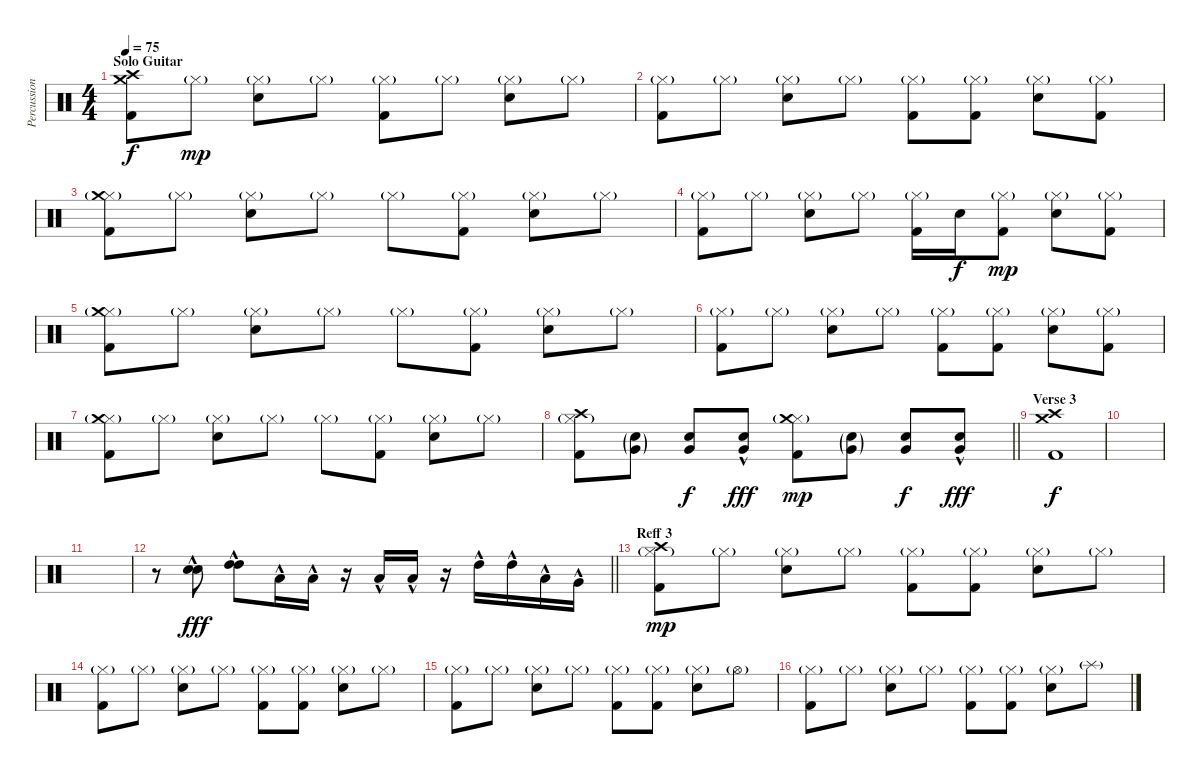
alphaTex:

\track ("Percussion" "Percussion") {instrument percussion}
\staff {score}
\articulation defaults
\ts (4 4)
\section ("" "Solo Guitar")
\tempo 75
\clef neutral
\ks c
("Crash medium (hit)" "Crash high (hit)" "Kick (hit) 2").8{dy f} "Hi-Hat (closed)"{g}.8{dy mp} ("Hi-Hat (closed)"{g} "Electric Snare (hit)").8 "Hi-Hat (closed)"{g}.8 ("Hi-Hat (closed)"{g} "Kick (hit) 2").8 "Hi-Hat (closed)"{g}.8 ("Hi-Hat (closed)"{g} "Electric Snare (hit)").8 "Hi-Hat (closed)"{g}.8 |
("Hi-Hat (closed)"{g} "Kick (hit) 2").8 "Hi-Hat (closed)"{g}.8 ("Hi-Hat (closed)"{g} "Electric Snare (hit)").8 "Hi-Hat (closed)"{g}.8 ("Hi-Hat (closed)"{g} "Kick (hit) 2").8 ("Hi-Hat (closed)"{g} "Kick (hit) 2").8 ("Hi-Hat (closed)"{g} "Electric Snare (hit)").8 ("Hi-Hat (closed)"{g} "Kick (hit) 2").8 |
("Hi-Hat (closed)"{g} "Crash medium (hit)" "Kick (hit) 2").8 "Hi-Hat (closed)"{g}.8 ("Hi-Hat (closed)"{g} "Electric Snare (hit)").8 "Hi-Hat (closed)"{g}.8 "Hi-Hat (closed)"{g}.8 ("Hi-Hat (closed)"{g} "Kick (hit) 2").8 ("Hi-Hat (closed)"{g} "Electric Snare (hit)").8 "Hi-Hat (closed)"{g}.8 |
("Hi-Hat (closed)"{g} "Kick (hit) 2").8 "Hi-Hat (closed)"{g}.8 ("Hi-Hat (closed)"{g} "Electric Snare (hit)").8 "Hi-Hat (closed)"{g}.8 ("Hi-Hat (closed)"{g} "Kick (hit) 2").16 "Electric Snare (hit)".16{dy f} ("Hi-Hat (closed)"{g} "Kick (hit) 2").8{dy mp} ("Hi-Hat (closed)"{g} "Electric Snare (hit)").8 ("Hi-Hat (closed)"{g} "Kick (hit) 2").8 |
("Hi-Hat (closed)"{g} "Crash medium (hit)" "Kick (hit) 2").8 "Hi-Hat (closed)"{g}.8 ("Hi-Hat (closed)"{g} "Electric Snare (hit)").8 "Hi-Hat (closed)"{g}.8 "Hi-Hat (closed)"{g}.8 ("Hi-Hat (closed)"{g} "Kick (hit) 2").8 ("Hi-Hat (closed)"{g} "Electric Snare (hit)").8 "Hi-Hat (closed)"{g}.8 |
("Hi-Hat (closed)"{g} "Kick (hit) 2").8 "Hi-Hat (closed)"{g}.8 ("Hi-Hat (closed)"{g} "Electric Snare (hit)").8 "Hi-Hat (closed)"{g}.8 ("Hi-Hat (closed)"{g} "Kick (hit) 2").8 ("Hi-Hat (closed)"{g} "Kick (hit) 2").8 ("Hi-Hat (closed)"{g} "Electric Snare (hit)").8 ("Hi-Hat (closed)"{g} "Kick (hit) 2").8 |
("Hi-Hat (closed)"{g} "Crash medium (hit)" "Kick (hit) 2").8 "Hi-Hat (closed)"{g}.8 ("Hi-Hat (closed)"{g} "Electric Snare (hit)").8 "Hi-Hat (closed)"{g}.8 "Hi-Hat (closed)"{g}.8 ("Hi-Hat (closed)"{g} "Kick (hit) 2").8 ("Hi-Hat (closed)"{g} "Electric Snare (hit)").8 "Hi-Hat (closed)"{g}.8 |
\barLineRight lightlight
("Hi-Hat (closed)"{g} "Crash high (hit)" "Kick (hit) 2").8 ("Electric Snare (hit)"{g} "Very Low Tom (hit)"{g}).8 ("Electric Snare (hit)" "Very Low Tom (hit)").8{dy f} ("Electric Snare (hit)"{hac} "Very Low Tom (hit)"{hac}).8{dy fff} ("Hi-Hat (closed)"{g} "Crash medium (hit)" "Kick (hit) 2").8{dy mp} ("Electric Snare (hit)"{g} "Very Low Tom (hit)"{g}).8 ("Electric Snare (hit)" "Very Low Tom (hit)").8{dy f} ("Electric Snare (hit)"{hac} "Very Low Tom (hit)"{hac}).8{dy fff} |
\section ("" "Verse 3")
("Crash medium (hit)" "Crash high (hit)" "Kick (hit) 2").1{dy f} |
|
|
\barLineRight lightlight
r.8 ("Electric Snare (hit)"{hac} "Electric Snare (hit)"{hac}).8{bd 60 dy fff} ("High Tom (hit)"{hac} "High Tom (hit)"{hac}).8{bd 60} "Low Tom (hit)"{hac}.16 "Low Tom (hit)"{hac}.16 r.16 "Low Floor Tom (hit)"{hac}.16 "Low Floor Tom (hit)"{hac}.16 r.16 "High Tom (hit)"{hac}.16 "High Tom (hit)"{hac}.16 "Low Tom (hit)"{hac}.16 "Very Low Tom (hit)"{hac}.16 |
\section ("" "Reff 3")
("Hi-Hat (closed)"{g} "Crash high (hit)" "Kick (hit) 2").8{dy mp} "Hi-Hat (closed)"{g}.8 ("Hi-Hat (closed)"{g} "Electric Snare (hit)").8 "Hi-Hat (closed)"{g}.8 ("Hi-Hat (closed)"{g} "Kick (hit) 2").8 ("Hi-Hat (closed)"{g} "Kick (hit) 2").8 ("Hi-Hat (closed)"{g} "Electric Snare (hit)").8 "Hi-Hat (closed)"{g}.8 |
("Hi-Hat (closed)"{g} "Kick (hit) 2").8 "Hi-Hat (closed)"{g}.8 ("Hi-Hat (closed)"{g} "Electric Snare (hit)").8 "Hi-Hat (closed)"{g}.8 ("Hi-Hat (closed)"{g} "Kick (hit) 2").8 ("Hi-Hat (closed)"{g} "Kick (hit) 2").8 ("Hi-Hat (closed)"{g} "Electric Snare (hit)").8 "Hi-Hat (closed)"{g}.8 |
("Hi-Hat (closed)"{g} "Kick (hit) 2").8 "Hi-Hat (closed)"{g}.8 ("Hi-Hat (closed)"{g} "Electric Snare (hit)").8 "Hi-Hat (closed)"{g}.8 ("Hi-Hat (closed)"{g} "Kick (hit) 2").8 ("Hi-Hat (closed)"{g} "Kick (hit) 2").8 ("Hi-Hat (closed)"{g} "Electric Snare (hit)").8 "Hi-Hat (open)"{g}.8 |
("Hi-Hat (closed)"{g} "Kick (hit) 2").8 "Hi-Hat (closed)"{g}.8 ("Hi-Hat (closed)"{g} "Electric Snare (hit)").8 "Hi-Hat (closed)"{g}.8 ("Hi-Hat (closed)"{g} "Kick (hit) 2").8 ("Hi-Hat (closed)"{g} "Kick (hit) 2").8 ("Hi-Hat (closed)"{g} "Electric Snare (hit)").8 "Splash (hit)"{g}.8
